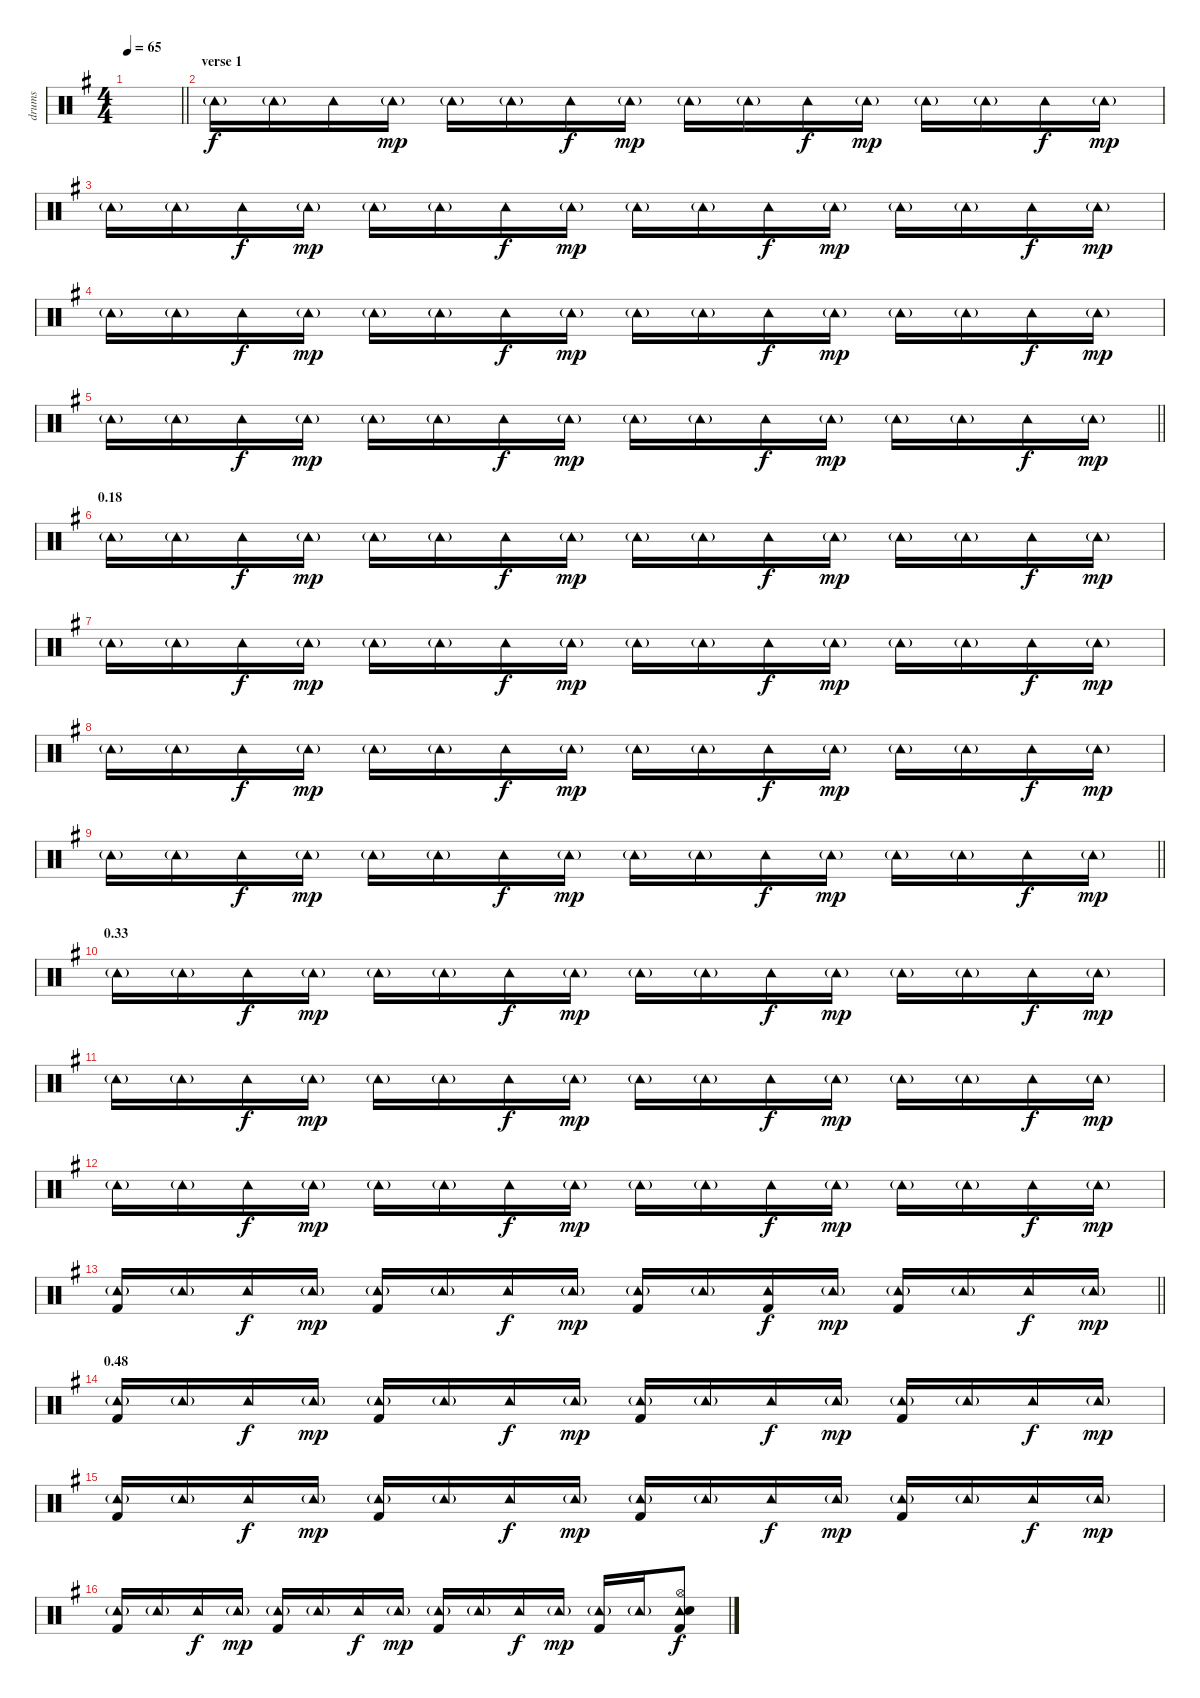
\track ("drums" "drums") {instrument percussion}
\staff {score}
\articulation defaults
\ts (4 4)
\tempo 65
\clef neutral
\barLineRight lightlight
\ks g
|
\section ("" "verse 1")
"Tambourine (hit)"{g}.16 "Tambourine (hit)"{g}.16 "Tambourine (hit)".16{dy f} "Tambourine (hit)"{g}.16{dy mp} "Tambourine (hit)"{g}.16 "Tambourine (hit)"{g}.16 "Tambourine (hit)".16{dy f} "Tambourine (hit)"{g}.16{dy mp} "Tambourine (hit)"{g}.16 "Tambourine (hit)"{g}.16 "Tambourine (hit)".16{dy f} "Tambourine (hit)"{g}.16{dy mp} "Tambourine (hit)"{g}.16 "Tambourine (hit)"{g}.16 "Tambourine (hit)".16{dy f} "Tambourine (hit)"{g}.16{dy mp} |
"Tambourine (hit)"{g}.16 "Tambourine (hit)"{g}.16 "Tambourine (hit)".16{dy f} "Tambourine (hit)"{g}.16{dy mp} "Tambourine (hit)"{g}.16 "Tambourine (hit)"{g}.16 "Tambourine (hit)".16{dy f} "Tambourine (hit)"{g}.16{dy mp} "Tambourine (hit)"{g}.16 "Tambourine (hit)"{g}.16 "Tambourine (hit)".16{dy f} "Tambourine (hit)"{g}.16{dy mp} "Tambourine (hit)"{g}.16 "Tambourine (hit)"{g}.16 "Tambourine (hit)".16{dy f} "Tambourine (hit)"{g}.16{dy mp} |
"Tambourine (hit)"{g}.16 "Tambourine (hit)"{g}.16 "Tambourine (hit)".16{dy f} "Tambourine (hit)"{g}.16{dy mp} "Tambourine (hit)"{g}.16 "Tambourine (hit)"{g}.16 "Tambourine (hit)".16{dy f} "Tambourine (hit)"{g}.16{dy mp} "Tambourine (hit)"{g}.16 "Tambourine (hit)"{g}.16 "Tambourine (hit)".16{dy f} "Tambourine (hit)"{g}.16{dy mp} "Tambourine (hit)"{g}.16 "Tambourine (hit)"{g}.16 "Tambourine (hit)".16{dy f} "Tambourine (hit)"{g}.16{dy mp} |
\barLineRight lightlight "Tambourine (hit)"{g}.16 "Tambourine (hit)"{g}.16 "Tambourine (hit)".16{dy f} "Tambourine (hit)"{g}.16{dy mp} "Tambourine (hit)"{g}.16 "Tambourine (hit)"{g}.16 "Tambourine (hit)".16{dy f} "Tambourine (hit)"{g}.16{dy mp} "Tambourine (hit)"{g}.16 "Tambourine (hit)"{g}.16 "Tambourine (hit)".16{dy f} "Tambourine (hit)"{g}.16{dy mp} "Tambourine (hit)"{g}.16 "Tambourine (hit)"{g}.16 "Tambourine (hit)".16{dy f} "Tambourine (hit)"{g}.16{dy mp}
|
\section ("" "0.18")
"Tambourine (hit)"{g}.16 "Tambourine (hit)"{g}.16 "Tambourine (hit)".16{dy f} "Tambourine (hit)"{g}.16{dy mp} "Tambourine (hit)"{g}.16 "Tambourine (hit)"{g}.16 "Tambourine (hit)".16{dy f} "Tambourine (hit)"{g}.16{dy mp} "Tambourine (hit)"{g}.16 "Tambourine (hit)"{g}.16 "Tambourine (hit)".16{dy f} "Tambourine (hit)"{g}.16{dy mp} "Tambourine (hit)"{g}.16 "Tambourine (hit)"{g}.16 "Tambourine (hit)".16{dy f} "Tambourine (hit)"{g}.16{dy mp} |
"Tambourine (hit)"{g}.16 "Tambourine (hit)"{g}.16 "Tambourine (hit)".16{dy f} "Tambourine (hit)"{g}.16{dy mp} "Tambourine (hit)"{g}.16 "Tambourine (hit)"{g}.16 "Tambourine (hit)".16{dy f} "Tambourine (hit)"{g}.16{dy mp} "Tambourine (hit)"{g}.16 "Tambourine (hit)"{g}.16 "Tambourine (hit)".16{dy f} "Tambourine (hit)"{g}.16{dy mp} "Tambourine (hit)"{g}.16 "Tambourine (hit)"{g}.16 "Tambourine (hit)".16{dy f} "Tambourine (hit)"{g}.16{dy mp} |
"Tambourine (hit)"{g}.16 "Tambourine (hit)"{g}.16 "Tambourine (hit)".16{dy f} "Tambourine (hit)"{g}.16{dy mp} "Tambourine (hit)"{g}.16 "Tambourine (hit)"{g}.16 "Tambourine (hit)".16{dy f} "Tambourine (hit)"{g}.16{dy mp} "Tambourine (hit)"{g}.16 "Tambourine (hit)"{g}.16 "Tambourine (hit)".16{dy f} "Tambourine (hit)"{g}.16{dy mp} "Tambourine (hit)"{g}.16 "Tambourine (hit)"{g}.16 "Tambourine (hit)".16{dy f} "Tambourine (hit)"{g}.16{dy mp} |
\barLineRight lightlight "Tambourine (hit)"{g}.16 "Tambourine (hit)"{g}.16 "Tambourine (hit)".16{dy f} "Tambourine (hit)"{g}.16{dy mp} "Tambourine (hit)"{g}.16 "Tambourine (hit)"{g}.16 "Tambourine (hit)".16{dy f} "Tambourine (hit)"{g}.16{dy mp} "Tambourine (hit)"{g}.16 "Tambourine (hit)"{g}.16 "Tambourine (hit)".16{dy f} "Tambourine (hit)"{g}.16{dy mp} "Tambourine (hit)"{g}.16 "Tambourine (hit)"{g}.16 "Tambourine (hit)".16{dy f} "Tambourine (hit)"{g}.16{dy mp}
|
\section ("" "0.33")
"Tambourine (hit)"{g}.16 "Tambourine (hit)"{g}.16 "Tambourine (hit)".16{dy f} "Tambourine (hit)"{g}.16{dy mp} "Tambourine (hit)"{g}.16 "Tambourine (hit)"{g}.16 "Tambourine (hit)".16{dy f} "Tambourine (hit)"{g}.16{dy mp} "Tambourine (hit)"{g}.16 "Tambourine (hit)"{g}.16 "Tambourine (hit)".16{dy f} "Tambourine (hit)"{g}.16{dy mp} "Tambourine (hit)"{g}.16 "Tambourine (hit)"{g}.16 "Tambourine (hit)".16{dy f} "Tambourine (hit)"{g}.16{dy mp} |
"Tambourine (hit)"{g}.16 "Tambourine (hit)"{g}.16 "Tambourine (hit)".16{dy f} "Tambourine (hit)"{g}.16{dy mp} "Tambourine (hit)"{g}.16 "Tambourine (hit)"{g}.16 "Tambourine (hit)".16{dy f} "Tambourine (hit)"{g}.16{dy mp} "Tambourine (hit)"{g}.16 "Tambourine (hit)"{g}.16 "Tambourine (hit)".16{dy f} "Tambourine (hit)"{g}.16{dy mp} "Tambourine (hit)"{g}.16 "Tambourine (hit)"{g}.16 "Tambourine (hit)".16{dy f} "Tambourine (hit)"{g}.16{dy mp} |
"Tambourine (hit)"{g}.16 "Tambourine (hit)"{g}.16 "Tambourine (hit)".16{dy f} "Tambourine (hit)"{g}.16{dy mp} "Tambourine (hit)"{g}.16 "Tambourine (hit)"{g}.16 "Tambourine (hit)".16{dy f} "Tambourine (hit)"{g}.16{dy mp} "Tambourine (hit)"{g}.16 "Tambourine (hit)"{g}.16 "Tambourine (hit)".16{dy f} "Tambourine (hit)"{g}.16{dy mp} "Tambourine (hit)"{g}.16 "Tambourine (hit)"{g}.16 "Tambourine (hit)".16{dy f} "Tambourine (hit)"{g}.16{dy mp} |
\barLineRight lightlight
("Tambourine (hit)"{g} "Kick (hit) 2").16 "Tambourine (hit)"{g}.16 "Tambourine (hit)".16{dy f} "Tambourine (hit)"{g}.16{dy mp} ("Tambourine (hit)"{g} "Kick (hit) 2").16 "Tambourine (hit)"{g}.16 "Tambourine (hit)".16{dy f} "Tambourine (hit)"{g}.16{dy mp} ("Tambourine (hit)"{g} "Kick (hit) 2").16 "Tambourine (hit)"{g}.16 ("Tambourine (hit)" "Kick (hit) 2").16{dy f} "Tambourine (hit)"{g}.16{dy mp} ("Tambourine (hit)"{g} "Kick (hit) 2").16 "Tambourine (hit)"{g}.16 "Tambourine (hit)".16{dy f} "Tambourine (hit)"{g}.16{dy mp} |
\section ("" "0.48")
("Tambourine (hit)"{g} "Kick (hit) 2").16 "Tambourine (hit)"{g}.16 "Tambourine (hit)".16{dy f} "Tambourine (hit)"{g}.16{dy mp} ("Tambourine (hit)"{g} "Kick (hit) 2").16 "Tambourine (hit)"{g}.16 "Tambourine (hit)".16{dy f} "Tambourine (hit)"{g}.16{dy mp} ("Tambourine (hit)"{g} "Kick (hit) 2").16 "Tambourine (hit)"{g}.16 "Tambourine (hit)".16{dy f} "Tambourine (hit)"{g}.16{dy mp} ("Tambourine (hit)"{g} "Kick (hit) 2").16 "Tambourine (hit)"{g}.16 "Tambourine (hit)".16{dy f} "Tambourine (hit)"{g}.16{dy mp} |
("Tambourine (hit)"{g} "Kick (hit) 2").16 "Tambourine (hit)"{g}.16 "Tambourine (hit)".16{dy f} "Tambourine (hit)"{g}.16{dy mp} ("Tambourine (hit)"{g} "Kick (hit) 2").16 "Tambourine (hit)"{g}.16 "Tambourine (hit)".16{dy f} "Tambourine (hit)"{g}.16{dy mp} ("Tambourine (hit)"{g} "Kick (hit) 2").16 "Tambourine (hit)"{g}.16 "Tambourine (hit)".16{dy f} "Tambourine (hit)"{g}.16{dy mp} ("Tambourine (hit)"{g} "Kick (hit) 2").16 "Tambourine (hit)"{g}.16 "Tambourine (hit)".16{dy f} "Tambourine (hit)"{g}.16{dy mp} |
("Tambourine (hit)"{g} "Kick (hit) 2").16 "Tambourine (hit)"{g}.16 "Tambourine (hit)".16{dy f} "Tambourine (hit)"{g}.16{dy mp} ("Tambourine (hit)"{g} "Kick (hit) 2").16 "Tambourine (hit)"{g}.16 "Tambourine (hit)".16{dy f} "Tambourine (hit)"{g}.16{dy mp} ("Tambourine (hit)"{g} "Kick (hit) 2").16 "Tambourine (hit)"{g}.16 "Tambourine (hit)".16{dy f} "Tambourine (hit)"{g}.16{dy mp} ("Tambourine (hit)"{g} "Kick (hit) 2").16 "Tambourine (hit)"{g}.16 ("Hi-Hat (open)" "Tambourine (hit)" "Electric Snare (hit)" "Kick (hit) 2").8{dy f}
